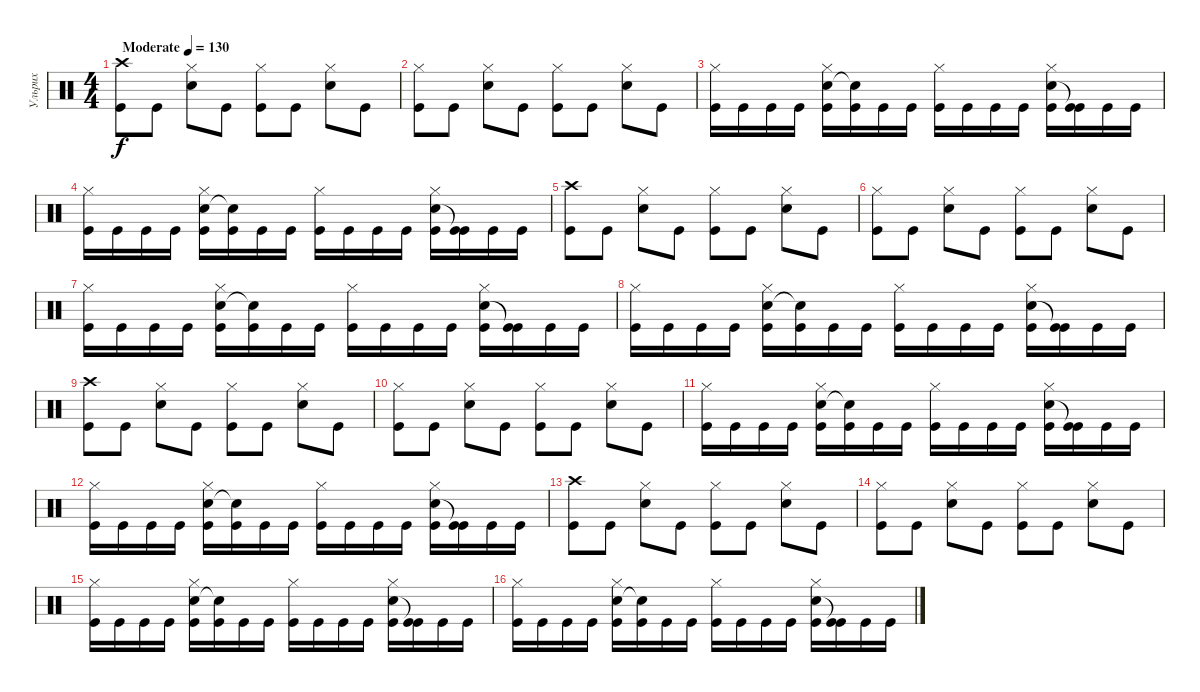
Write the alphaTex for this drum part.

\track ("Ульрих" "Ульрих") {instrument percussion}
\staff {score}
\articulation defaults
\ts (4 4)
\tempo (130 "Moderate")
\clef neutral
\ks c
("Kick (hit)" "Crash high (hit)").8{dy f} "Kick (hit)".8 ("Snare (hit) 2" "Hi-Hat (closed)").8 "Kick (hit)".8 ("Kick (hit)" "Hi-Hat (closed)").8 "Kick (hit)".8 ("Snare (hit) 2" "Hi-Hat (closed)").8 "Kick (hit)".8 |
("Kick (hit)" "Hi-Hat (closed)").8 "Kick (hit)".8 ("Snare (hit) 2" "Hi-Hat (closed)").8 "Kick (hit)".8 ("Kick (hit)" "Hi-Hat (closed)").8 "Kick (hit)".8 ("Snare (hit) 2" "Hi-Hat (closed)").8 "Kick (hit)".8 |
("Kick (hit)" "Hi-Hat (closed)").16 "Kick (hit)".16 "Kick (hit)".16 "Kick (hit)".16 ("Snare (hit) 2" "Kick (hit)" "Hi-Hat (closed)").16 ("Snare (hit)"{t} "Kick (hit)").16 "Kick (hit)".16 "Kick (hit)".16 ("Kick (hit)" "Hi-Hat (closed)").16 "Kick (hit)".16 "Kick (hit)".16 "Kick (hit)".16 ("Snare (hit) 2" "Kick (hit)" "Hi-Hat (closed)").16 ("Kick (hit)"{t} "Kick (hit)").16 "Kick (hit)".16 "Kick (hit)".16 |
("Kick (hit)" "Hi-Hat (closed)").16 "Kick (hit)".16 "Kick (hit)".16 "Kick (hit)".16 ("Snare (hit) 2" "Kick (hit)" "Hi-Hat (closed)").16 ("Snare (hit)"{t} "Kick (hit)").16 "Kick (hit)".16 "Kick (hit)".16 ("Kick (hit)" "Hi-Hat (closed)").16 "Kick (hit)".16 "Kick (hit)".16 "Kick (hit)".16 ("Snare (hit) 2" "Kick (hit)" "Hi-Hat (closed)").16 ("Kick (hit)"{t} "Kick (hit)").16 "Kick (hit)".16 "Kick (hit)".16 |
("Kick (hit)" "Crash high (hit)").8 "Kick (hit)".8 ("Snare (hit) 2" "Hi-Hat (closed)").8 "Kick (hit)".8 ("Kick (hit)" "Hi-Hat (closed)").8 "Kick (hit)".8 ("Snare (hit) 2" "Hi-Hat (closed)").8 "Kick (hit)".8 |
("Kick (hit)" "Hi-Hat (closed)").8 "Kick (hit)".8 ("Snare (hit) 2" "Hi-Hat (closed)").8 "Kick (hit)".8 ("Kick (hit)" "Hi-Hat (closed)").8 "Kick (hit)".8 ("Snare (hit) 2" "Hi-Hat (closed)").8 "Kick (hit)".8 |
("Kick (hit)" "Hi-Hat (closed)").16 "Kick (hit)".16 "Kick (hit)".16 "Kick (hit)".16 ("Snare (hit) 2" "Kick (hit)" "Hi-Hat (closed)").16 ("Snare (hit)"{t} "Kick (hit)").16 "Kick (hit)".16 "Kick (hit)".16 ("Kick (hit)" "Hi-Hat (closed)").16 "Kick (hit)".16 "Kick (hit)".16 "Kick (hit)".16 ("Snare (hit) 2" "Kick (hit)" "Hi-Hat (closed)").16 ("Kick (hit)"{t} "Kick (hit)").16 "Kick (hit)".16 "Kick (hit)".16 |
("Kick (hit)" "Hi-Hat (closed)").16 "Kick (hit)".16 "Kick (hit)".16 "Kick (hit)".16 ("Snare (hit) 2" "Kick (hit)" "Hi-Hat (closed)").16 ("Snare (hit)"{t} "Kick (hit)").16 "Kick (hit)".16 "Kick (hit)".16 ("Kick (hit)" "Hi-Hat (closed)").16 "Kick (hit)".16 "Kick (hit)".16 "Kick (hit)".16 ("Snare (hit) 2" "Kick (hit)" "Hi-Hat (closed)").16 ("Kick (hit)"{t} "Kick (hit)").16 "Kick (hit)".16 "Kick (hit)".16 |
("Kick (hit)" "Crash high (hit)").8 "Kick (hit)".8 ("Snare (hit) 2" "Hi-Hat (closed)").8 "Kick (hit)".8 ("Kick (hit)" "Hi-Hat (closed)").8 "Kick (hit)".8 ("Snare (hit) 2" "Hi-Hat (closed)").8 "Kick (hit)".8 |
("Kick (hit)" "Hi-Hat (closed)").8 "Kick (hit)".8 ("Snare (hit) 2" "Hi-Hat (closed)").8 "Kick (hit)".8 ("Kick (hit)" "Hi-Hat (closed)").8 "Kick (hit)".8 ("Snare (hit) 2" "Hi-Hat (closed)").8 "Kick (hit)".8 |
("Kick (hit)" "Hi-Hat (closed)").16 "Kick (hit)".16 "Kick (hit)".16 "Kick (hit)".16 ("Snare (hit) 2" "Kick (hit)" "Hi-Hat (closed)").16 ("Snare (hit)"{t} "Kick (hit)").16 "Kick (hit)".16 "Kick (hit)".16 ("Kick (hit)" "Hi-Hat (closed)").16 "Kick (hit)".16 "Kick (hit)".16 "Kick (hit)".16 ("Snare (hit) 2" "Kick (hit)" "Hi-Hat (closed)").16 ("Kick (hit)"{t} "Kick (hit)").16 "Kick (hit)".16 "Kick (hit)".16 |
("Kick (hit)" "Hi-Hat (closed)").16 "Kick (hit)".16 "Kick (hit)".16 "Kick (hit)".16 ("Snare (hit) 2" "Kick (hit)" "Hi-Hat (closed)").16 ("Snare (hit)"{t} "Kick (hit)").16 "Kick (hit)".16 "Kick (hit)".16 ("Kick (hit)" "Hi-Hat (closed)").16 "Kick (hit)".16 "Kick (hit)".16 "Kick (hit)".16 ("Snare (hit) 2" "Kick (hit)" "Hi-Hat (closed)").16 ("Kick (hit)"{t} "Kick (hit)").16 "Kick (hit)".16 "Kick (hit)".16 |
("Kick (hit)" "Crash high (hit)").8 "Kick (hit)".8 ("Snare (hit) 2" "Hi-Hat (closed)").8 "Kick (hit)".8 ("Kick (hit)" "Hi-Hat (closed)").8 "Kick (hit)".8 ("Snare (hit) 2" "Hi-Hat (closed)").8 "Kick (hit)".8 |
("Kick (hit)" "Hi-Hat (closed)").8 "Kick (hit)".8 ("Snare (hit) 2" "Hi-Hat (closed)").8 "Kick (hit)".8 ("Kick (hit)" "Hi-Hat (closed)").8 "Kick (hit)".8 ("Snare (hit) 2" "Hi-Hat (closed)").8 "Kick (hit)".8 |
("Kick (hit)" "Hi-Hat (closed)").16 "Kick (hit)".16 "Kick (hit)".16 "Kick (hit)".16 ("Snare (hit) 2" "Kick (hit)" "Hi-Hat (closed)").16 ("Snare (hit)"{t} "Kick (hit)").16 "Kick (hit)".16 "Kick (hit)".16 ("Kick (hit)" "Hi-Hat (closed)").16 "Kick (hit)".16 "Kick (hit)".16 "Kick (hit)".16 ("Snare (hit) 2" "Kick (hit)" "Hi-Hat (closed)").16 ("Kick (hit)"{t} "Kick (hit)").16 "Kick (hit)".16 "Kick (hit)".16 |
("Kick (hit)" "Hi-Hat (closed)").16 "Kick (hit)".16 "Kick (hit)".16 "Kick (hit)".16 ("Snare (hit) 2" "Kick (hit)" "Hi-Hat (closed)").16 ("Snare (hit)"{t} "Kick (hit)").16 "Kick (hit)".16 "Kick (hit)".16 ("Kick (hit)" "Hi-Hat (closed)").16 "Kick (hit)".16 "Kick (hit)".16 "Kick (hit)".16 ("Snare (hit) 2" "Kick (hit)" "Hi-Hat (closed)").16 ("Kick (hit)"{t} "Kick (hit)").16 "Kick (hit)".16 "Kick (hit)".16
